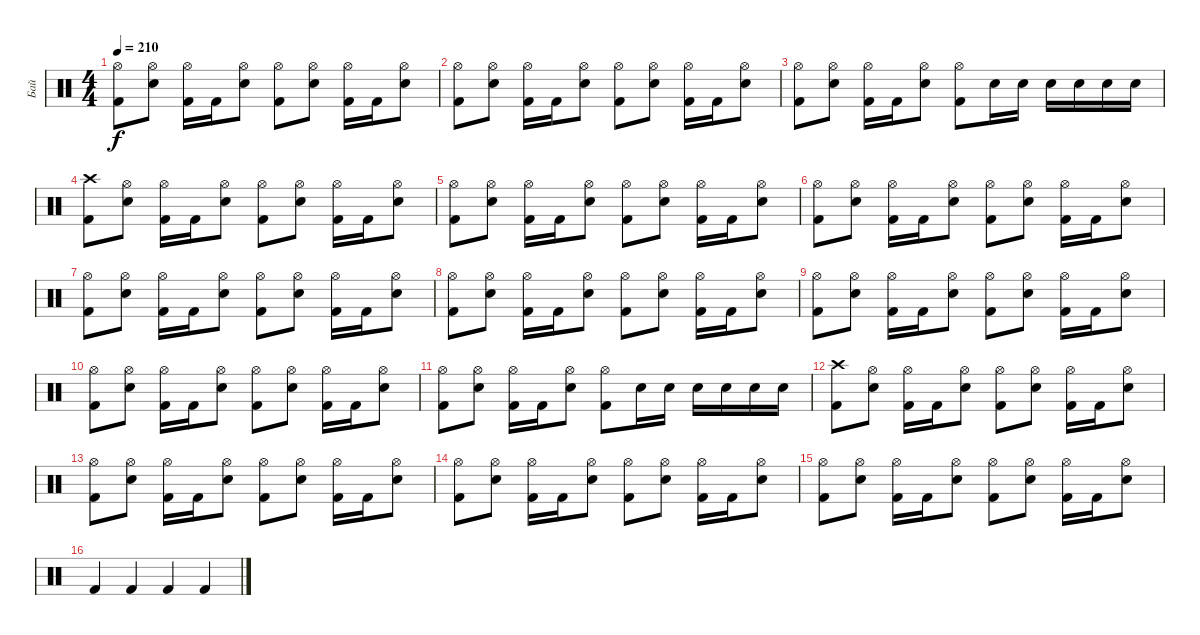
\track ("Бай" "Бай") {instrument percussion}
\staff {score}
\articulation defaults
\ts (4 4)
\tempo 210
\clef neutral
\ks c
("Hi-Hat (open)" "Kick (hit) 2").8{dy f} ("Hi-Hat (open)" "Electric Snare (hit)").8 ("Hi-Hat (open)" "Kick (hit) 2").16 "Kick (hit) 2".16 ("Hi-Hat (open)" "Electric Snare (hit)").8 ("Hi-Hat (open)" "Kick (hit) 2").8 ("Hi-Hat (open)" "Electric Snare (hit)").8 ("Hi-Hat (open)" "Kick (hit) 2").16 "Kick (hit) 2".16 ("Hi-Hat (open)" "Electric Snare (hit)").8 |
("Hi-Hat (open)" "Kick (hit) 2").8 ("Hi-Hat (open)" "Electric Snare (hit)").8 ("Hi-Hat (open)" "Kick (hit) 2").16 "Kick (hit) 2".16 ("Hi-Hat (open)" "Electric Snare (hit)").8 ("Hi-Hat (open)" "Kick (hit) 2").8 ("Hi-Hat (open)" "Electric Snare (hit)").8 ("Hi-Hat (open)" "Kick (hit) 2").16 "Kick (hit) 2".16 ("Hi-Hat (open)" "Electric Snare (hit)").8 |
("Hi-Hat (open)" "Kick (hit) 2").8 ("Hi-Hat (open)" "Electric Snare (hit)").8 ("Hi-Hat (open)" "Kick (hit) 2").16 "Kick (hit) 2".16 ("Hi-Hat (open)" "Electric Snare (hit)").8 ("Hi-Hat (open)" "Kick (hit) 2").8 "Electric Snare (hit)".16 "Electric Snare (hit)".16 "Electric Snare (hit)".16 "Electric Snare (hit)".16 "Electric Snare (hit)".16 "Electric Snare (hit)".16 |
("Crash high (hit)" "Kick (hit) 2").8 ("Hi-Hat (open)" "Electric Snare (hit)").8 ("Hi-Hat (open)" "Kick (hit) 2").16 "Kick (hit) 2".16 ("Hi-Hat (open)" "Electric Snare (hit)").8 ("Hi-Hat (open)" "Kick (hit) 2").8 ("Hi-Hat (open)" "Electric Snare (hit)").8 ("Hi-Hat (open)" "Kick (hit) 2").16 "Kick (hit) 2".16 ("Hi-Hat (open)" "Electric Snare (hit)").8 |
("Hi-Hat (open)" "Kick (hit) 2").8 ("Hi-Hat (open)" "Electric Snare (hit)").8 ("Hi-Hat (open)" "Kick (hit) 2").16 "Kick (hit) 2".16 ("Hi-Hat (open)" "Electric Snare (hit)").8 ("Hi-Hat (open)" "Kick (hit) 2").8 ("Hi-Hat (open)" "Electric Snare (hit)").8 ("Hi-Hat (open)" "Kick (hit) 2").16 "Kick (hit) 2".16 ("Hi-Hat (open)" "Electric Snare (hit)").8 |
("Hi-Hat (open)" "Kick (hit) 2").8 ("Hi-Hat (open)" "Electric Snare (hit)").8 ("Hi-Hat (open)" "Kick (hit) 2").16 "Kick (hit) 2".16 ("Hi-Hat (open)" "Electric Snare (hit)").8 ("Hi-Hat (open)" "Kick (hit) 2").8 ("Hi-Hat (open)" "Electric Snare (hit)").8 ("Hi-Hat (open)" "Kick (hit) 2").16 "Kick (hit) 2".16 ("Hi-Hat (open)" "Electric Snare (hit)").8 |
("Hi-Hat (open)" "Kick (hit) 2").8 ("Hi-Hat (open)" "Electric Snare (hit)").8 ("Hi-Hat (open)" "Kick (hit) 2").16 "Kick (hit) 2".16 ("Hi-Hat (open)" "Electric Snare (hit)").8 ("Hi-Hat (open)" "Kick (hit) 2").8 ("Hi-Hat (open)" "Electric Snare (hit)").8 ("Hi-Hat (open)" "Kick (hit) 2").16 "Kick (hit) 2".16 ("Hi-Hat (open)" "Electric Snare (hit)").8 |
("Hi-Hat (open)" "Kick (hit) 2").8 ("Hi-Hat (open)" "Electric Snare (hit)").8 ("Hi-Hat (open)" "Kick (hit) 2").16 "Kick (hit) 2".16 ("Hi-Hat (open)" "Electric Snare (hit)").8 ("Hi-Hat (open)" "Kick (hit) 2").8 ("Hi-Hat (open)" "Electric Snare (hit)").8 ("Hi-Hat (open)" "Kick (hit) 2").16 "Kick (hit) 2".16 ("Hi-Hat (open)" "Electric Snare (hit)").8 |
("Hi-Hat (open)" "Kick (hit) 2").8 ("Hi-Hat (open)" "Electric Snare (hit)").8 ("Hi-Hat (open)" "Kick (hit) 2").16 "Kick (hit) 2".16 ("Hi-Hat (open)" "Electric Snare (hit)").8 ("Hi-Hat (open)" "Kick (hit) 2").8 ("Hi-Hat (open)" "Electric Snare (hit)").8 ("Hi-Hat (open)" "Kick (hit) 2").16 "Kick (hit) 2".16 ("Hi-Hat (open)" "Electric Snare (hit)").8 |
("Hi-Hat (open)" "Kick (hit) 2").8 ("Hi-Hat (open)" "Electric Snare (hit)").8 ("Hi-Hat (open)" "Kick (hit) 2").16 "Kick (hit) 2".16 ("Hi-Hat (open)" "Electric Snare (hit)").8 ("Hi-Hat (open)" "Kick (hit) 2").8 ("Hi-Hat (open)" "Electric Snare (hit)").8 ("Hi-Hat (open)" "Kick (hit) 2").16 "Kick (hit) 2".16 ("Hi-Hat (open)" "Electric Snare (hit)").8 |
("Hi-Hat (open)" "Kick (hit) 2").8 ("Hi-Hat (open)" "Electric Snare (hit)").8 ("Hi-Hat (open)" "Kick (hit) 2").16 "Kick (hit) 2".16 ("Hi-Hat (open)" "Electric Snare (hit)").8 ("Hi-Hat (open)" "Kick (hit) 2").8 "Electric Snare (hit)".16 "Electric Snare (hit)".16 "Electric Snare (hit)".16 "Electric Snare (hit)".16 "Electric Snare (hit)".16 "Electric Snare (hit)".16 |
("Crash high (hit)" "Kick (hit) 2").8 ("Hi-Hat (open)" "Electric Snare (hit)").8 ("Hi-Hat (open)" "Kick (hit) 2").16 "Kick (hit) 2".16 ("Hi-Hat (open)" "Electric Snare (hit)").8 ("Hi-Hat (open)" "Kick (hit) 2").8 ("Hi-Hat (open)" "Electric Snare (hit)").8 ("Hi-Hat (open)" "Kick (hit) 2").16 "Kick (hit) 2".16 ("Hi-Hat (open)" "Electric Snare (hit)").8 |
("Hi-Hat (open)" "Kick (hit) 2").8 ("Hi-Hat (open)" "Electric Snare (hit)").8 ("Hi-Hat (open)" "Kick (hit) 2").16 "Kick (hit) 2".16 ("Hi-Hat (open)" "Electric Snare (hit)").8 ("Hi-Hat (open)" "Kick (hit) 2").8 ("Hi-Hat (open)" "Electric Snare (hit)").8 ("Hi-Hat (open)" "Kick (hit) 2").16 "Kick (hit) 2".16 ("Hi-Hat (open)" "Electric Snare (hit)").8 |
("Hi-Hat (open)" "Kick (hit) 2").8 ("Hi-Hat (open)" "Electric Snare (hit)").8 ("Hi-Hat (open)" "Kick (hit) 2").16 "Kick (hit) 2".16 ("Hi-Hat (open)" "Electric Snare (hit)").8 ("Hi-Hat (open)" "Kick (hit) 2").8 ("Hi-Hat (open)" "Electric Snare (hit)").8 ("Hi-Hat (open)" "Kick (hit) 2").16 "Kick (hit) 2".16 ("Hi-Hat (open)" "Electric Snare (hit)").8 |
("Hi-Hat (open)" "Kick (hit) 2").8 ("Hi-Hat (open)" "Electric Snare (hit)").8 ("Hi-Hat (open)" "Kick (hit) 2").16 "Kick (hit) 2".16 ("Hi-Hat (open)" "Electric Snare (hit)").8 ("Hi-Hat (open)" "Kick (hit) 2").8 ("Hi-Hat (open)" "Electric Snare (hit)").8 ("Hi-Hat (open)" "Kick (hit) 2").16 "Kick (hit) 2".16 ("Hi-Hat (open)" "Electric Snare (hit)").8 |
"Kick (hit) 2".4 "Kick (hit) 2".4 "Kick (hit) 2".4 "Kick (hit) 2".4
